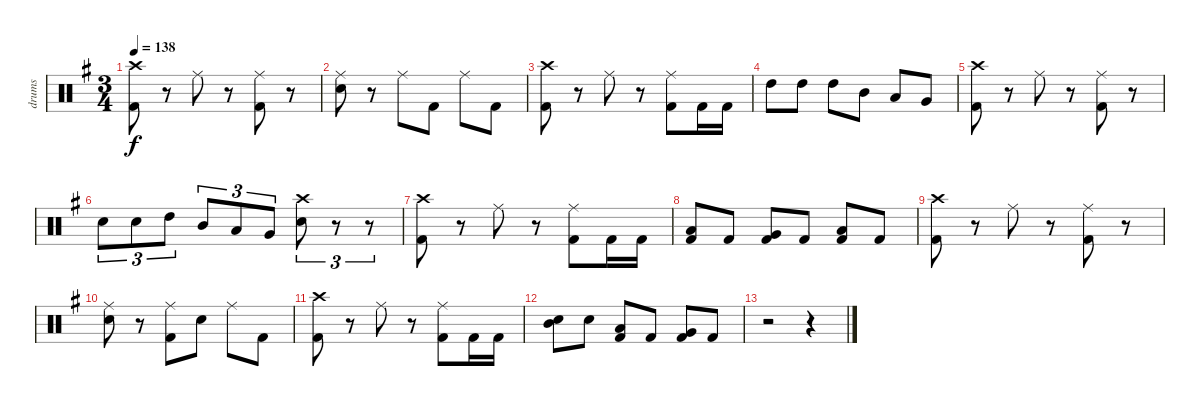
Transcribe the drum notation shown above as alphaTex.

\track ("drums" "drums") {instrument percussion}
\staff {score}
\articulation defaults
\ts (3 4)
\tempo 138
\clef neutral
\ks eminor
("Crash high (hit)" "Kick (hit) 2").8{dy f} r.8 "Ride (middle)".8 r.8 ("Ride (middle)" "Kick (hit) 2").8 r.8 |
("Ride (middle)" "Snare (hit) 2").8 r.8 "Ride (middle)".8 "Kick (hit) 2".8 "Ride (middle)".8 "Kick (hit) 2".8 |
("Crash high (hit)" "Kick (hit) 2").8 r.8 "Ride (middle)".8 r.8 ("Ride (middle)" "Kick (hit) 2").8 "Kick (hit) 2".16 "Kick (hit) 2".16 |
"High Tom (hit)".8 "High Tom (hit)".8 "High Tom (hit)".8 "Mid Tom (hit)".8 "Low Tom (hit)".8 "Very Low Tom (hit)".8 |
("Crash high (hit)" "Kick (hit) 2").8 r.8 "Ride (middle)".8 r.8 ("Ride (middle)" "Kick (hit) 2").8 r.8 |
"Snare (hit) 2".8{tu (3 2)} "Snare (hit) 2".8{tu (3 2)} "High Tom (hit)".8{tu (3 2)} "Mid Tom (hit)".8{tu (3 2)} "Low Tom (hit)".8{tu (3 2)} "Very Low Tom (hit)".8{tu (3 2)} ("Crash high (hit)" "Snare (hit) 2").8{tu (3 2)} r.8{tu (3 2)} r.8{tu (3 2)} |
("Crash high (hit)" "Kick (hit) 2").8 r.8 "Ride (middle)".8 r.8 ("Ride (middle)" "Kick (hit) 2").8 "Kick (hit) 2".16 "Kick (hit) 2".16 |
("Low Tom (hit)" "Kick (hit) 2").8 "Kick (hit) 2".8 ("Very Low Tom (hit)" "Kick (hit) 2").8 "Kick (hit) 2".8 ("Low Tom (hit)" "Kick (hit) 2").8 "Kick (hit) 2".8 |
("Crash high (hit)" "Kick (hit) 2").8 r.8 "Ride (middle)".8 r.8 ("Ride (middle)" "Kick (hit) 2").8 r.8 |
("Ride (middle)" "Snare (hit) 2").8 r.8 ("Ride (middle)" "Kick (hit) 2").8 "Snare (hit) 2".8 "Ride (middle)".8 "Kick (hit) 2".8 |
("Crash high (hit)" "Kick (hit) 2").8 r.8 "Ride (middle)".8 r.8 ("Ride (middle)" "Kick (hit) 2").8 "Kick (hit) 2".16 "Kick (hit) 2".16 |
("Mid Tom (hit)" "Snare (hit) 2").8 "Snare (hit) 2".8 ("Low Tom (hit)" "Kick (hit) 2").8 "Kick (hit) 2".8 ("Very Low Tom (hit)" "Kick (hit) 2").8 "Kick (hit) 2".8 |
r.2 r.4
